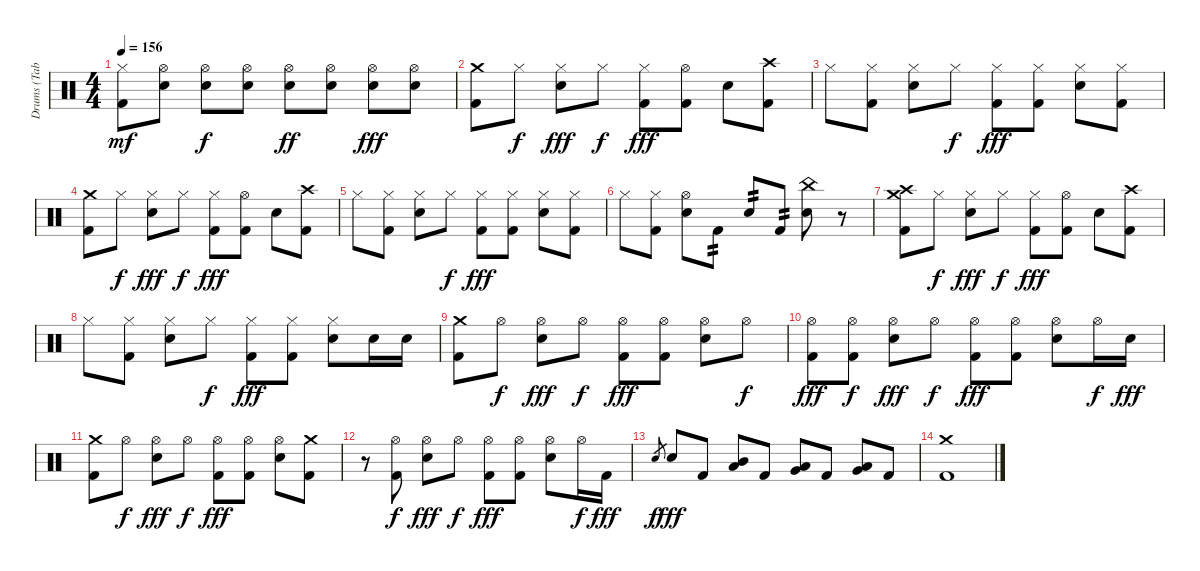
\track ("Drums (Tab By Drumminger)" "Drums (Tab") {instrument percussion}
\staff {score}
\articulation defaults
\ts (4 4)
\tempo 156
\clef neutral
\ks c
("Hi-Hat (closed)" "Kick (hit) 2").8{dy mf} ("Hi-Hat (open)" "Snare (hit) 2").8 ("Hi-Hat (open)" "Snare (hit) 2").8{dy f} ("Hi-Hat (open)" "Snare (hit) 2").8 ("Hi-Hat (open)" "Snare (hit) 2").8{dy ff} ("Hi-Hat (open)" "Snare (hit) 2").8 ("Hi-Hat (open)" "Snare (hit) 2").8{dy fff} ("Hi-Hat (open)" "Snare (hit) 2").8 |
("Crash medium (hit)" "Kick (hit) 2").8 "Hi-Hat (closed)".8{dy f} ("Hi-Hat (closed)" "Snare (hit) 2").8{dy fff} "Hi-Hat (closed)".8{dy f} ("Hi-Hat (closed)" "Kick (hit) 2").8{dy fff} ("Hi-Hat (open)" "Kick (hit) 2").8 "Snare (hit) 2".8 ("Crash high (hit)" "Kick (hit) 2").8 |
"Hi-Hat (closed)".8 ("Hi-Hat (closed)" "Kick (hit) 2").8 ("Hi-Hat (closed)" "Snare (hit) 2").8 "Hi-Hat (closed)".8{dy f} ("Hi-Hat (closed)" "Kick (hit) 2").8{dy fff} ("Hi-Hat (closed)" "Kick (hit) 2").8 ("Hi-Hat (closed)" "Snare (hit) 2").8 ("Hi-Hat (closed)" "Kick (hit) 2").8 |
("Crash medium (hit)" "Kick (hit) 2").8 "Hi-Hat (closed)".8{dy f} ("Hi-Hat (closed)" "Snare (hit) 2").8{dy fff} "Hi-Hat (closed)".8{dy f} ("Hi-Hat (closed)" "Kick (hit) 2").8{dy fff} ("Hi-Hat (open)" "Kick (hit) 2").8 "Snare (hit) 2".8 ("Crash high (hit)" "Kick (hit) 2").8 |
"Hi-Hat (closed)".8 ("Hi-Hat (closed)" "Kick (hit) 2").8 ("Hi-Hat (closed)" "Snare (hit) 2").8 "Hi-Hat (closed)".8{dy f} ("Hi-Hat (closed)" "Kick (hit) 2").8{dy fff} ("Hi-Hat (closed)" "Kick (hit) 2").8 ("Hi-Hat (closed)" "Snare (hit) 2").8 ("Hi-Hat (closed)" "Kick (hit) 2").8 |
"Hi-Hat (closed)".8 ("Hi-Hat (closed)" "Kick (hit) 2").8 ("Hi-Hat (open)" "Snare (hit) 2").8 "Kick (hit) 2".8{tp 2} "Snare (hit) 2".8{tp 2} "Kick (hit) 2".8{tp 2} ("China (hit)" "Snare (hit) 2").8 r.8 |
("Crash medium (hit)" "Crash high (hit)" "Kick (hit) 2").8 "Hi-Hat (closed)".8{dy f} ("Hi-Hat (closed)" "Snare (hit) 2").8{dy fff} "Hi-Hat (closed)".8{dy f} ("Hi-Hat (closed)" "Kick (hit) 2").8{dy fff} ("Hi-Hat (open)" "Kick (hit) 2").8 "Snare (hit) 2".8 ("Crash high (hit)" "Kick (hit) 2").8 |
"Hi-Hat (closed)".8 ("Hi-Hat (closed)" "Kick (hit) 2").8 ("Hi-Hat (closed)" "Snare (hit) 2").8 "Hi-Hat (closed)".8{dy f} ("Hi-Hat (closed)" "Kick (hit) 2").8{dy fff} ("Hi-Hat (closed)" "Kick (hit) 2").8 ("Hi-Hat (closed)" "Snare (hit) 2").8 "Snare (hit) 2".16 "Snare (hit) 2".16 |
("Crash medium (hit)" "Kick (hit) 2").8 "Hi-Hat (open)".8{dy f} ("Hi-Hat (open)" "Snare (hit) 2").8{dy fff} "Hi-Hat (open)".8{dy f} ("Hi-Hat (open)" "Kick (hit) 2").8{dy fff} ("Hi-Hat (open)" "Kick (hit) 2").8 ("Hi-Hat (open)" "Snare (hit) 2").8 "Hi-Hat (open)".8{dy f} |
("Hi-Hat (open)" "Kick (hit) 2").8{dy fff} ("Hi-Hat (open)" "Kick (hit) 2").8{dy f} ("Hi-Hat (open)" "Snare (hit) 2").8{dy fff} "Hi-Hat (open)".8{dy f} ("Hi-Hat (open)" "Kick (hit) 2").8{dy fff} ("Hi-Hat (open)" "Kick (hit) 2").8 ("Hi-Hat (open)" "Snare (hit) 2").8 "Hi-Hat (open)".16{dy f} "Snare (hit) 2".16{dy fff} |
("Crash medium (hit)" "Kick (hit) 2").8 "Hi-Hat (open)".8{dy f} ("Hi-Hat (open)" "Snare (hit) 2").8{dy fff} "Hi-Hat (open)".8{dy f} ("Hi-Hat (open)" "Kick (hit) 2").8{dy fff} ("Hi-Hat (open)" "Kick (hit) 2").8 ("Hi-Hat (open)" "Snare (hit) 2").8 ("Crash medium (hit)" "Kick (hit) 2").8 |
r.8 ("Hi-Hat (open)" "Kick (hit) 2").8{dy f} ("Hi-Hat (open)" "Snare (hit) 2").8{dy fff} "Hi-Hat (open)".8{dy f} ("Hi-Hat (open)" "Kick (hit) 2").8{dy fff} ("Hi-Hat (open)" "Kick (hit) 2").8 ("Hi-Hat (open)" "Snare (hit) 2").8 "Hi-Hat (open)".16{dy f} "Kick (hit) 2".16{dy fff} |
"Snare (hit) 2".8{gr dy f} "Snare (hit) 2".8{dy fff} "Kick (hit) 2".8 ("Mid Tom (hit)" "Low Tom (hit)").8 "Kick (hit) 2".8 ("Low Tom (hit)" "Very Low Tom (hit)").8 "Kick (hit) 2".8 ("Very Low Tom (hit)" "Low Floor Tom (hit)").8 "Kick (hit) 2".8 |
("Crash medium (hit)" "Kick (hit) 2").1
